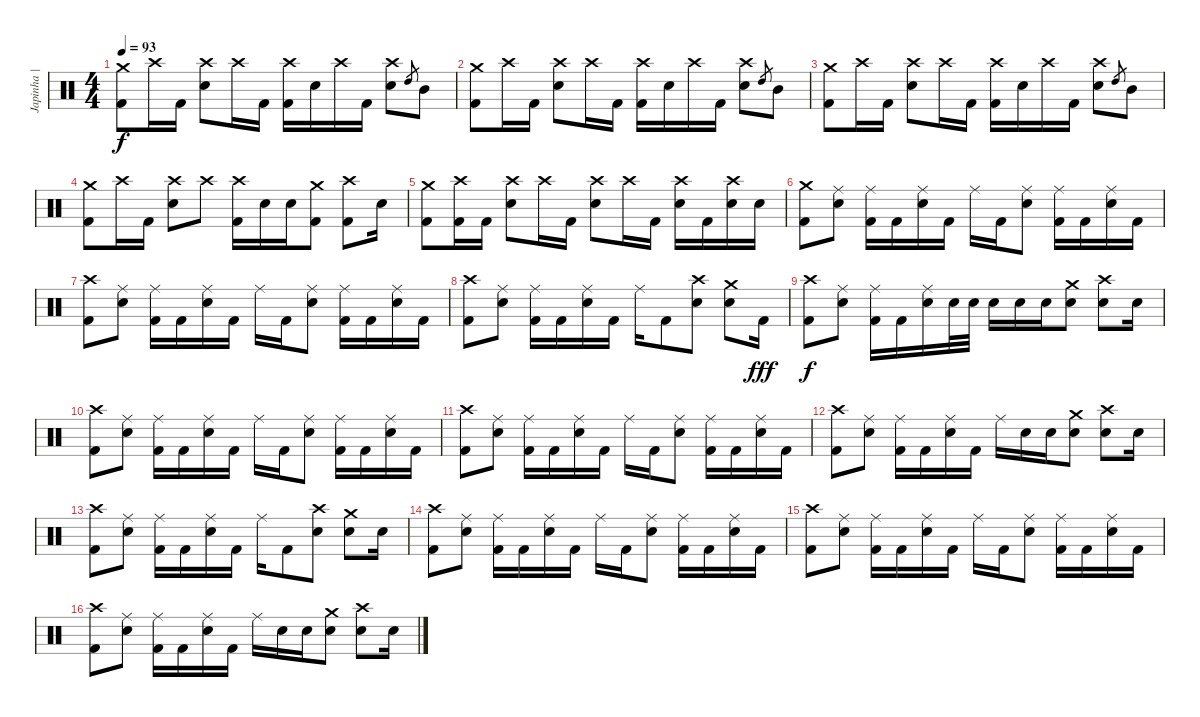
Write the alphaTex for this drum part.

\track ("Japinha | Bateria" "Japinha | ") {instrument percussion}
\staff {score}
\articulation defaults
\ts (4 4)
\tempo 93
\clef neutral
\ks c
("Crash medium (hit)" "Kick (hit) 2").8{dy f} "Crash high (hit)".16 "Kick (hit) 2".16 ("Crash high (hit)" "Electric Snare (hit)").8 "Crash high (hit)".16 "Kick (hit) 2".16 ("Crash high (hit)" "Kick (hit) 2").16 "Electric Snare (hit)".16 "Crash high (hit)".16 "Kick (hit) 2".16 ("Crash high (hit)" "Electric Snare (hit)").8 "High Tom (hit)".8{gr} "Mid Tom (hit)".8 |
("Crash medium (hit)" "Kick (hit) 2").8 "Crash high (hit)".16 "Kick (hit) 2".16 ("Crash high (hit)" "Electric Snare (hit)").8 "Crash high (hit)".16 "Kick (hit) 2".16 ("Crash high (hit)" "Kick (hit) 2").16 "Electric Snare (hit)".16 "Crash high (hit)".16 "Kick (hit) 2".16 ("Crash high (hit)" "Electric Snare (hit)").8 "High Tom (hit)".8{gr} "Mid Tom (hit)".8 |
("Crash medium (hit)" "Kick (hit) 2").8 "Crash high (hit)".16 "Kick (hit) 2".16 ("Crash high (hit)" "Electric Snare (hit)").8 "Crash high (hit)".16 "Kick (hit) 2".16 ("Crash high (hit)" "Kick (hit) 2").16 "Electric Snare (hit)".16 "Crash high (hit)".16 "Kick (hit) 2".16 ("Crash high (hit)" "Electric Snare (hit)").8 "High Tom (hit)".8{gr} "Mid Tom (hit)".8 |
("Crash medium (hit)" "Kick (hit) 2").8 "Crash high (hit)".16 "Kick (hit) 2".16 ("Crash high (hit)" "Electric Snare (hit)").8 "Crash high (hit)".8 ("Crash high (hit)" "Kick (hit) 2").16 "Electric Snare (hit)".16 "Electric Snare (hit)".16 ("Crash medium (hit)" "Kick (hit) 2").8 ("Crash high (hit)" "Kick (hit) 2").8 "Electric Snare (hit)".16 |
("Crash medium (hit)" "Kick (hit) 2").8 ("Crash high (hit)" "Kick (hit) 2").16 "Kick (hit) 2".16 ("Crash high (hit)" "Electric Snare (hit)").8 "Crash high (hit)".16 "Kick (hit) 2".16 ("Crash high (hit)" "Electric Snare (hit)").8 "Crash high (hit)".16 "Kick (hit) 2".16 ("Crash high (hit)" "Electric Snare (hit)").16 "Kick (hit) 2".16 ("Crash high (hit)" "Electric Snare (hit)").16 "Electric Snare (hit)".16 |
("Crash medium (hit)" "Kick (hit) 2").8 ("Ride (middle)" "Electric Snare (hit)").8 ("Ride (middle)" "Kick (hit) 2").16 "Kick (hit) 2".16 ("Ride (middle)" "Electric Snare (hit)").16 "Kick (hit) 2".16 "Ride (middle)".16 "Kick (hit) 2".16 ("Ride (middle)" "Electric Snare (hit)").8 ("Ride (middle)" "Kick (hit) 2").16 "Kick (hit) 2".16 ("Ride (middle)" "Electric Snare (hit)").16 "Kick (hit) 2".16 |
("Crash high (hit)" "Kick (hit) 2").8 ("Ride (middle)" "Electric Snare (hit)").8 ("Ride (middle)" "Kick (hit) 2").16 "Kick (hit) 2".16 ("Ride (middle)" "Electric Snare (hit)").16 "Kick (hit) 2".16 "Ride (middle)".16 "Kick (hit) 2".16 ("Ride (middle)" "Electric Snare (hit)").8 ("Ride (middle)" "Kick (hit) 2").16 "Kick (hit) 2".16 ("Ride (middle)" "Electric Snare (hit)").16 "Kick (hit) 2".16 |
("Crash high (hit)" "Kick (hit) 2").8 ("Ride (middle)" "Electric Snare (hit)").8 ("Ride (middle)" "Kick (hit) 2").16 "Kick (hit) 2".16 ("Ride (middle)" "Electric Snare (hit)").16 "Kick (hit) 2".16 "Ride (middle)".16 "Kick (hit) 2".8 ("Crash high (hit)" "Electric Snare (hit)").8 ("Crash medium (hit)" "Electric Snare (hit)").8 "Kick (hit) 2".16{dy fff} |
("Crash high (hit)" "Kick (hit) 2").8{dy f} ("Ride (middle)" "Electric Snare (hit)").8 ("Ride (middle)" "Kick (hit) 2").16 "Kick (hit) 2".16 ("Ride (middle)" "Electric Snare (hit)").16 "Electric Snare (hit)".32 "Electric Snare (hit)".32 "Electric Snare (hit)".16 "Electric Snare (hit)".16 "Electric Snare (hit)".16 ("Crash medium (hit)" "Electric Snare (hit)").8 ("Crash high (hit)" "Electric Snare (hit)").8 "Electric Snare (hit)".16 |
("Crash high (hit)" "Kick (hit) 2").8 ("Ride (middle)" "Electric Snare (hit)").8 ("Ride (middle)" "Kick (hit) 2").16 "Kick (hit) 2".16 ("Ride (middle)" "Electric Snare (hit)").16 "Kick (hit) 2".16 "Ride (middle)".16 "Kick (hit) 2".16 ("Ride (middle)" "Electric Snare (hit)").8 ("Ride (middle)" "Kick (hit) 2").16 "Kick (hit) 2".16 ("Ride (middle)" "Electric Snare (hit)").16 "Kick (hit) 2".16 |
("Crash high (hit)" "Kick (hit) 2").8 ("Ride (middle)" "Electric Snare (hit)").8 ("Ride (middle)" "Kick (hit) 2").16 "Kick (hit) 2".16 ("Ride (middle)" "Electric Snare (hit)").16 "Kick (hit) 2".16 "Ride (middle)".16 "Kick (hit) 2".16 ("Ride (middle)" "Electric Snare (hit)").8 ("Ride (middle)" "Kick (hit) 2").16 "Kick (hit) 2".16 ("Ride (middle)" "Electric Snare (hit)").16 "Kick (hit) 2".16 |
("Crash high (hit)" "Kick (hit) 2").8 ("Ride (middle)" "Electric Snare (hit)").8 ("Ride (middle)" "Kick (hit) 2").16 "Kick (hit) 2".16 ("Ride (middle)" "Electric Snare (hit)").16 "Kick (hit) 2".16 "Ride (middle)".16 "Electric Snare (hit)".16 "Electric Snare (hit)".16 ("Crash medium (hit)" "Electric Snare (hit)").8 ("Crash high (hit)" "Electric Snare (hit)").8 "Electric Snare (hit)".16 |
("Crash high (hit)" "Kick (hit) 2").8 ("Ride (middle)" "Electric Snare (hit)").8 ("Ride (middle)" "Kick (hit) 2").16 "Kick (hit) 2".16 ("Ride (middle)" "Electric Snare (hit)").16 "Kick (hit) 2".16 "Ride (middle)".16 "Kick (hit) 2".8 ("Crash high (hit)" "Electric Snare (hit)").8 ("Crash medium (hit)" "Electric Snare (hit)").8 "Electric Snare (hit)".16 |
("Crash high (hit)" "Kick (hit) 2").8 ("Ride (middle)" "Electric Snare (hit)").8 ("Ride (middle)" "Kick (hit) 2").16 "Kick (hit) 2".16 ("Ride (middle)" "Electric Snare (hit)").16 "Kick (hit) 2".16 "Ride (middle)".16 "Kick (hit) 2".16 ("Ride (middle)" "Electric Snare (hit)").8 ("Ride (middle)" "Kick (hit) 2").16 "Kick (hit) 2".16 ("Ride (middle)" "Electric Snare (hit)").16 "Kick (hit) 2".16 |
("Crash high (hit)" "Kick (hit) 2").8 ("Ride (middle)" "Electric Snare (hit)").8 ("Ride (middle)" "Kick (hit) 2").16 "Kick (hit) 2".16 ("Ride (middle)" "Electric Snare (hit)").16 "Kick (hit) 2".16 "Ride (middle)".16 "Kick (hit) 2".16 ("Ride (middle)" "Electric Snare (hit)").8 ("Ride (middle)" "Kick (hit) 2").16 "Kick (hit) 2".16 ("Ride (middle)" "Electric Snare (hit)").16 "Kick (hit) 2".16 |
("Crash high (hit)" "Kick (hit) 2").8 ("Ride (middle)" "Electric Snare (hit)").8 ("Ride (middle)" "Kick (hit) 2").16 "Kick (hit) 2".16 ("Ride (middle)" "Electric Snare (hit)").16 "Kick (hit) 2".16 "Ride (middle)".16 "Electric Snare (hit)".16 "Electric Snare (hit)".16 ("Crash medium (hit)" "Electric Snare (hit)").8 ("Crash high (hit)" "Electric Snare (hit)").8 "Electric Snare (hit)".16
